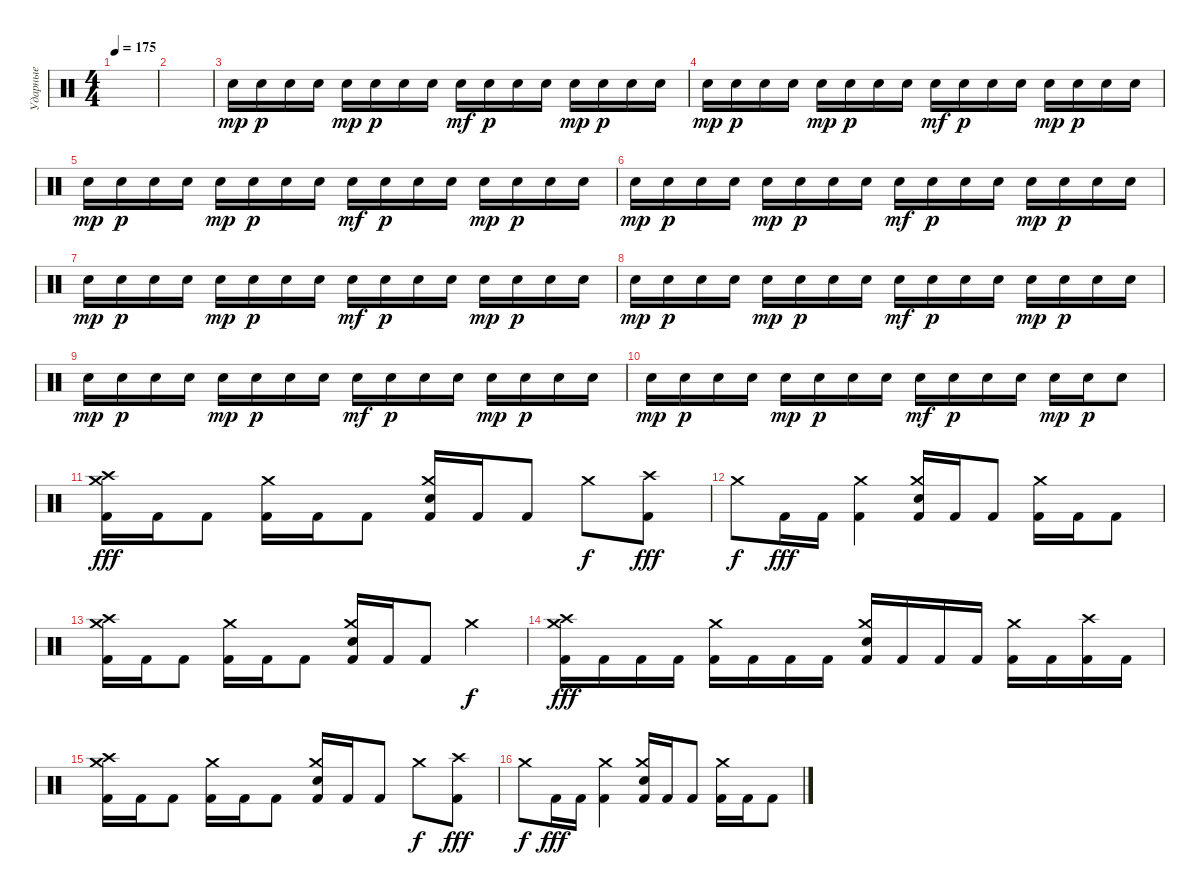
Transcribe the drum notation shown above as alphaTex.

\track ("Ударные" "Ударные") {instrument percussion}
\staff {score}
\articulation defaults
\ts (4 4)
\tempo 175
\clef neutral
\ks c
|
|
"Electric Snare (hit)".16{dy mp} "Electric Snare (hit)".16{dy p} "Electric Snare (hit)".16 "Electric Snare (hit)".16 "Electric Snare (hit)".16{dy mp} "Electric Snare (hit)".16{dy p} "Electric Snare (hit)".16 "Electric Snare (hit)".16 "Electric Snare (hit)".16{dy mf} "Electric Snare (hit)".16{dy p} "Electric Snare (hit)".16 "Electric Snare (hit)".16 "Electric Snare (hit)".16{dy mp} "Electric Snare (hit)".16{dy p} "Electric Snare (hit)".16 "Electric Snare (hit)".16 |
"Electric Snare (hit)".16{dy mp} "Electric Snare (hit)".16{dy p} "Electric Snare (hit)".16 "Electric Snare (hit)".16 "Electric Snare (hit)".16{dy mp} "Electric Snare (hit)".16{dy p} "Electric Snare (hit)".16 "Electric Snare (hit)".16 "Electric Snare (hit)".16{dy mf} "Electric Snare (hit)".16{dy p} "Electric Snare (hit)".16 "Electric Snare (hit)".16 "Electric Snare (hit)".16{dy mp} "Electric Snare (hit)".16{dy p} "Electric Snare (hit)".16 "Electric Snare (hit)".16 |
"Electric Snare (hit)".16{dy mp} "Electric Snare (hit)".16{dy p} "Electric Snare (hit)".16 "Electric Snare (hit)".16 "Electric Snare (hit)".16{dy mp} "Electric Snare (hit)".16{dy p} "Electric Snare (hit)".16 "Electric Snare (hit)".16 "Electric Snare (hit)".16{dy mf} "Electric Snare (hit)".16{dy p} "Electric Snare (hit)".16 "Electric Snare (hit)".16 "Electric Snare (hit)".16{dy mp} "Electric Snare (hit)".16{dy p} "Electric Snare (hit)".16 "Electric Snare (hit)".16 |
"Electric Snare (hit)".16{dy mp} "Electric Snare (hit)".16{dy p} "Electric Snare (hit)".16 "Electric Snare (hit)".16 "Electric Snare (hit)".16{dy mp} "Electric Snare (hit)".16{dy p} "Electric Snare (hit)".16 "Electric Snare (hit)".16 "Electric Snare (hit)".16{dy mf} "Electric Snare (hit)".16{dy p} "Electric Snare (hit)".16 "Electric Snare (hit)".16 "Electric Snare (hit)".16{dy mp} "Electric Snare (hit)".16{dy p} "Electric Snare (hit)".16 "Electric Snare (hit)".16 |
"Electric Snare (hit)".16{dy mp} "Electric Snare (hit)".16{dy p} "Electric Snare (hit)".16 "Electric Snare (hit)".16 "Electric Snare (hit)".16{dy mp} "Electric Snare (hit)".16{dy p} "Electric Snare (hit)".16 "Electric Snare (hit)".16 "Electric Snare (hit)".16{dy mf} "Electric Snare (hit)".16{dy p} "Electric Snare (hit)".16 "Electric Snare (hit)".16 "Electric Snare (hit)".16{dy mp} "Electric Snare (hit)".16{dy p} "Electric Snare (hit)".16 "Electric Snare (hit)".16 |
"Electric Snare (hit)".16{dy mp} "Electric Snare (hit)".16{dy p} "Electric Snare (hit)".16 "Electric Snare (hit)".16 "Electric Snare (hit)".16{dy mp} "Electric Snare (hit)".16{dy p} "Electric Snare (hit)".16 "Electric Snare (hit)".16 "Electric Snare (hit)".16{dy mf} "Electric Snare (hit)".16{dy p} "Electric Snare (hit)".16 "Electric Snare (hit)".16 "Electric Snare (hit)".16{dy mp} "Electric Snare (hit)".16{dy p} "Electric Snare (hit)".16 "Electric Snare (hit)".16 |
"Electric Snare (hit)".16{dy mp} "Electric Snare (hit)".16{dy p} "Electric Snare (hit)".16 "Electric Snare (hit)".16 "Electric Snare (hit)".16{dy mp} "Electric Snare (hit)".16{dy p} "Electric Snare (hit)".16 "Electric Snare (hit)".16 "Electric Snare (hit)".16{dy mf} "Electric Snare (hit)".16{dy p} "Electric Snare (hit)".16 "Electric Snare (hit)".16 "Electric Snare (hit)".16{dy mp} "Electric Snare (hit)".16{dy p} "Electric Snare (hit)".16 "Electric Snare (hit)".16 |
"Electric Snare (hit)".16{dy mp} "Electric Snare (hit)".16{dy p} "Electric Snare (hit)".16 "Electric Snare (hit)".16 "Electric Snare (hit)".16{dy mp} "Electric Snare (hit)".16{dy p} "Electric Snare (hit)".16 "Electric Snare (hit)".16 "Electric Snare (hit)".16{dy mf} "Electric Snare (hit)".16{dy p} "Electric Snare (hit)".16 "Electric Snare (hit)".16 "Electric Snare (hit)".16{dy mp} "Electric Snare (hit)".16{dy p} "Electric Snare (hit)".8 |
("Crash high (hit)" "Crash medium (hit)" "Kick (hit) 2").16{dy fff} "Kick (hit) 2".16 "Kick (hit) 2".8 ("Crash medium (hit)" "Kick (hit) 2").16 "Kick (hit) 2".16 "Kick (hit) 2".8 ("Crash medium (hit)" "Electric Snare (hit)" "Kick (hit) 2").16 "Kick (hit) 2".16 "Kick (hit) 2".8 "Crash medium (hit)".8{dy f} ("Crash high (hit)" "Kick (hit) 2").8{dy fff} |
"Crash medium (hit)".8{dy f} "Kick (hit) 2".16{dy fff} "Kick (hit) 2".16 ("Crash medium (hit)" "Kick (hit) 2").4 ("Crash medium (hit)" "Electric Snare (hit)" "Kick (hit) 2").16 "Kick (hit) 2".16 "Kick (hit) 2".8 ("Crash medium (hit)" "Kick (hit) 2").16 "Kick (hit) 2".16 "Kick (hit) 2".8 |
("Crash high (hit)" "Crash medium (hit)" "Kick (hit) 2").16 "Kick (hit) 2".16 "Kick (hit) 2".8 ("Crash medium (hit)" "Kick (hit) 2").16 "Kick (hit) 2".16 "Kick (hit) 2".8 ("Crash medium (hit)" "Electric Snare (hit)" "Kick (hit) 2").16 "Kick (hit) 2".16 "Kick (hit) 2".8 "Crash medium (hit)".4{dy f} |
("Crash high (hit)" "Crash medium (hit)" "Kick (hit) 2").16{dy fff} "Kick (hit) 2".16 "Kick (hit) 2".16 "Kick (hit) 2".16 ("Crash medium (hit)" "Kick (hit) 2").16 "Kick (hit) 2".16 "Kick (hit) 2".16 "Kick (hit) 2".16 ("Crash medium (hit)" "Electric Snare (hit)" "Kick (hit) 2").16 "Kick (hit) 2".16 "Kick (hit) 2".16 "Kick (hit) 2".16 ("Crash medium (hit)" "Kick (hit) 2").16 "Kick (hit) 2".16 ("Crash high (hit)" "Kick (hit) 2").16 "Kick (hit) 2".16 |
("Crash high (hit)" "Crash medium (hit)" "Kick (hit) 2").16 "Kick (hit) 2".16 "Kick (hit) 2".8 ("Crash medium (hit)" "Kick (hit) 2").16 "Kick (hit) 2".16 "Kick (hit) 2".8 ("Crash medium (hit)" "Electric Snare (hit)" "Kick (hit) 2").16 "Kick (hit) 2".16 "Kick (hit) 2".8 "Crash medium (hit)".8{dy f} ("Crash high (hit)" "Kick (hit) 2").8{dy fff} |
"Crash medium (hit)".8{dy f} "Kick (hit) 2".16{dy fff} "Kick (hit) 2".16 ("Crash medium (hit)" "Kick (hit) 2").4 ("Crash medium (hit)" "Electric Snare (hit)" "Kick (hit) 2").16 "Kick (hit) 2".16 "Kick (hit) 2".8 ("Crash medium (hit)" "Kick (hit) 2").16 "Kick (hit) 2".16 "Kick (hit) 2".8
